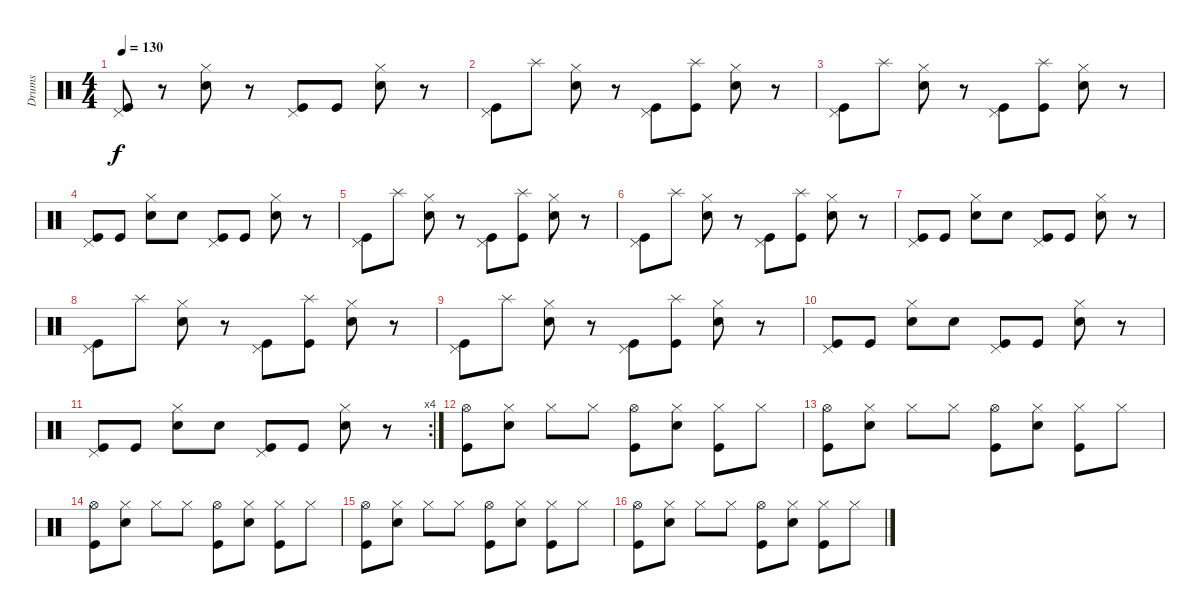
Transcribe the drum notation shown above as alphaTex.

\track ("Drums" "Drums") {instrument percussion}
\staff {score}
\articulation defaults
\ts (4 4)
\tempo 130
\clef neutral
\ks c
("Pedal Hi-Hat (hit)" "Kick (hit)").8{dy f} r.8 ("Hi-Hat (closed)" "Snare (hit) 2").8 r.8 ("Pedal Hi-Hat (hit)" "Kick (hit)").8 "Kick (hit)".8 ("Hi-Hat (closed)" "Snare (hit) 2").8 r.8 |
("Pedal Hi-Hat (hit)" "Kick (hit)").8 "Splash (hit)".8 ("Hi-Hat (closed)" "Snare (hit) 2").8 r.8 ("Pedal Hi-Hat (hit)" "Kick (hit)").8 ("Splash (hit)" "Kick (hit)").8 ("Hi-Hat (closed)" "Snare (hit) 2").8 r.8 |
("Pedal Hi-Hat (hit)" "Kick (hit)").8 "Splash (hit)".8 ("Hi-Hat (closed)" "Snare (hit) 2").8 r.8 ("Pedal Hi-Hat (hit)" "Kick (hit)").8 ("Splash (hit)" "Kick (hit)").8 ("Hi-Hat (closed)" "Snare (hit) 2").8 r.8 |
("Pedal Hi-Hat (hit)" "Kick (hit)").8 "Kick (hit)".8 ("Hi-Hat (closed)" "Snare (hit) 2").8 "Snare (hit) 2".8 ("Pedal Hi-Hat (hit)" "Kick (hit)").8 "Kick (hit)".8 ("Hi-Hat (closed)" "Snare (hit) 2").8 r.8 |
("Pedal Hi-Hat (hit)" "Kick (hit)").8 "Splash (hit)".8 ("Hi-Hat (closed)" "Snare (hit) 2").8 r.8 ("Pedal Hi-Hat (hit)" "Kick (hit)").8 ("Splash (hit)" "Kick (hit)").8 ("Hi-Hat (closed)" "Snare (hit) 2").8 r.8 |
("Pedal Hi-Hat (hit)" "Kick (hit)").8 "Splash (hit)".8 ("Hi-Hat (closed)" "Snare (hit) 2").8 r.8 ("Pedal Hi-Hat (hit)" "Kick (hit)").8 ("Splash (hit)" "Kick (hit)").8 ("Hi-Hat (closed)" "Snare (hit) 2").8 r.8 |
("Pedal Hi-Hat (hit)" "Kick (hit)").8 "Kick (hit)".8 ("Hi-Hat (closed)" "Snare (hit) 2").8 "Snare (hit) 2".8 ("Pedal Hi-Hat (hit)" "Kick (hit)").8 "Kick (hit)".8 ("Hi-Hat (closed)" "Snare (hit) 2").8 r.8 |
("Pedal Hi-Hat (hit)" "Kick (hit)").8 "Splash (hit)".8 ("Hi-Hat (closed)" "Snare (hit) 2").8 r.8 ("Pedal Hi-Hat (hit)" "Kick (hit)").8 ("Splash (hit)" "Kick (hit)").8 ("Hi-Hat (closed)" "Snare (hit) 2").8 r.8 |
("Pedal Hi-Hat (hit)" "Kick (hit)").8 "Splash (hit)".8 ("Hi-Hat (closed)" "Snare (hit) 2").8 r.8 ("Pedal Hi-Hat (hit)" "Kick (hit)").8 ("Splash (hit)" "Kick (hit)").8 ("Hi-Hat (closed)" "Snare (hit) 2").8 r.8 |
("Pedal Hi-Hat (hit)" "Kick (hit)").8 "Kick (hit)".8 ("Hi-Hat (closed)" "Snare (hit) 2").8 "Snare (hit) 2".8 ("Pedal Hi-Hat (hit)" "Kick (hit)").8 "Kick (hit)".8 ("Hi-Hat (closed)" "Snare (hit) 2").8 r.8 |
\rc 4
("Pedal Hi-Hat (hit)" "Kick (hit)").8 "Kick (hit)".8 ("Hi-Hat (closed)" "Snare (hit) 2").8 "Snare (hit) 2".8 ("Pedal Hi-Hat (hit)" "Kick (hit)").8 "Kick (hit)".8 ("Hi-Hat (closed)" "Snare (hit) 2").8 r.8 |
("Hi-Hat (open)" "Kick (hit)").8 ("Hi-Hat (closed)" "Snare (hit) 2").8 "Hi-Hat (closed)".8 "Hi-Hat (closed)".8 ("Hi-Hat (open)" "Kick (hit)").8 ("Hi-Hat (closed)" "Snare (hit) 2").8 ("Hi-Hat (closed)" "Kick (hit)").8 "Hi-Hat (closed)".8 |
("Hi-Hat (open)" "Kick (hit)").8 ("Hi-Hat (closed)" "Snare (hit) 2").8 "Hi-Hat (closed)".8 "Hi-Hat (closed)".8 ("Hi-Hat (open)" "Kick (hit)").8 ("Hi-Hat (closed)" "Snare (hit) 2").8 ("Hi-Hat (closed)" "Kick (hit)").8 "Hi-Hat (closed)".8 |
("Hi-Hat (open)" "Kick (hit)").8 ("Hi-Hat (closed)" "Snare (hit) 2").8 "Hi-Hat (closed)".8 "Hi-Hat (closed)".8 ("Hi-Hat (open)" "Kick (hit)").8 ("Hi-Hat (closed)" "Snare (hit) 2").8 ("Hi-Hat (closed)" "Kick (hit)").8 "Hi-Hat (closed)".8 |
("Hi-Hat (open)" "Kick (hit)").8 ("Hi-Hat (closed)" "Snare (hit) 2").8 "Hi-Hat (closed)".8 "Hi-Hat (closed)".8 ("Hi-Hat (open)" "Kick (hit)").8 ("Hi-Hat (closed)" "Snare (hit) 2").8 ("Hi-Hat (closed)" "Kick (hit)").8 "Hi-Hat (closed)".8 |
("Hi-Hat (open)" "Kick (hit)").8 ("Hi-Hat (closed)" "Snare (hit) 2").8 "Hi-Hat (closed)".8 "Hi-Hat (closed)".8 ("Hi-Hat (open)" "Kick (hit)").8 ("Hi-Hat (closed)" "Snare (hit) 2").8 ("Hi-Hat (closed)" "Kick (hit)").8 "Hi-Hat (closed)".8
